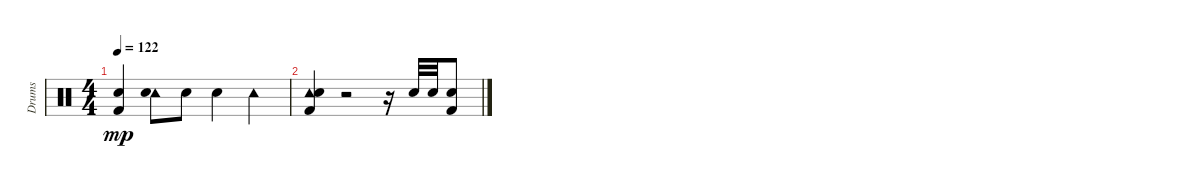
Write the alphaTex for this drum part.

\track ("Drums" "Drums") {instrument percussion}
\staff {score}
\articulation defaults
\ts (4 4)
\tempo 122
\clef neutral
\ks c
("Kick (hit) 2" "Snare (hit) 2").4{dy mp} ("Tambourine (hit)" "Snare (hit) 2").8 "Snare (hit) 2".8 "Snare (hit) 2".4 "Tambourine (hit)".4 |
("Tambourine (hit)" "Kick (hit) 2" "Snare (hit) 2").4 r.2 r.16 "Snare (hit) 2".32 "Snare (hit) 2".32 ("Kick (hit) 2" "Snare (hit) 2").8
